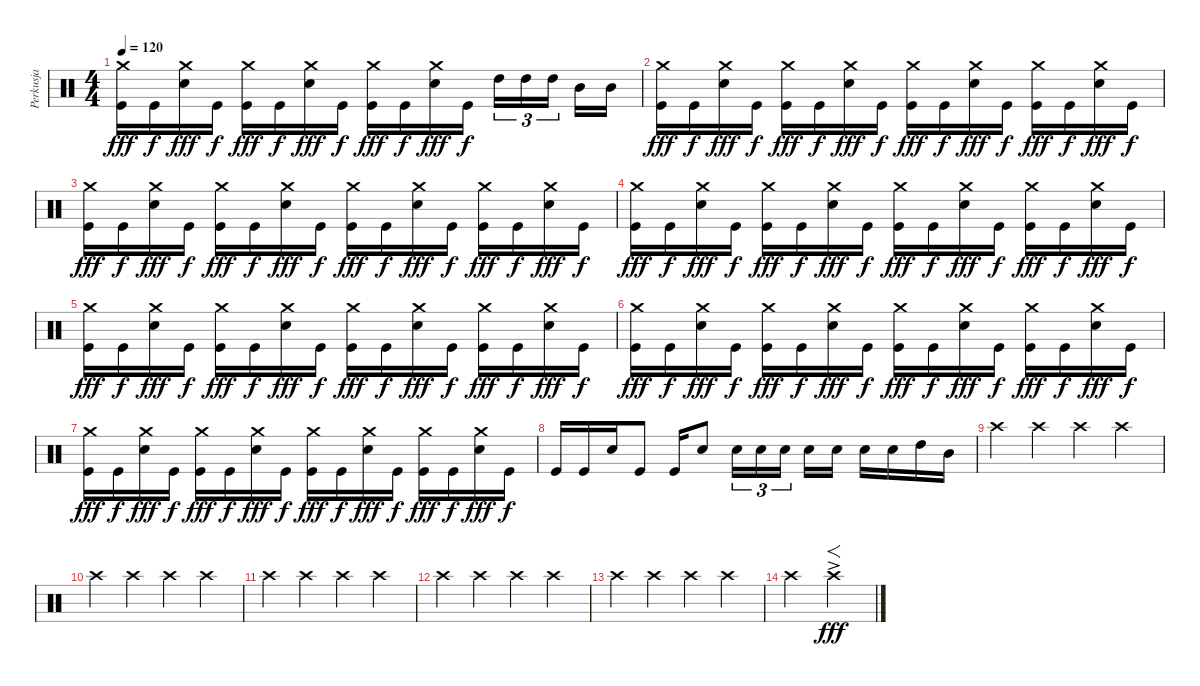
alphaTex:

\track ("Perkusja" "Perkusja") {instrument percussion}
\staff {score}
\articulation defaults
\ts (4 4)
\tempo 120
\clef neutral
\ks c
("Crash medium (hit)" "Kick (hit)").16{dy fff} "Kick (hit)".16{dy f} ("Crash medium (hit)" "Electric Snare (hit)").16{dy fff} "Kick (hit)".16{dy f} ("Crash medium (hit)" "Kick (hit)").16{dy fff} "Kick (hit)".16{dy f} ("Crash medium (hit)" "Electric Snare (hit)").16{dy fff} "Kick (hit)".16{dy f} ("Crash medium (hit)" "Kick (hit)").16{dy fff} "Kick (hit)".16{dy f} ("Crash medium (hit)" "Electric Snare (hit)").16{dy fff} "Kick (hit)".16{dy f} "High Tom (hit)".16{tu (3 2)} "High Tom (hit)".16{tu (3 2)} "High Tom (hit)".16{tu (3 2)} "Mid Tom (hit)".16 "Mid Tom (hit)".16 |
("Crash medium (hit)" "Kick (hit)").16{dy fff} "Kick (hit)".16{dy f} ("Crash medium (hit)" "Electric Snare (hit)").16{dy fff} "Kick (hit)".16{dy f} ("Crash medium (hit)" "Kick (hit)").16{dy fff} "Kick (hit)".16{dy f} ("Crash medium (hit)" "Electric Snare (hit)").16{dy fff} "Kick (hit)".16{dy f} ("Crash medium (hit)" "Kick (hit)").16{dy fff} "Kick (hit)".16{dy f} ("Crash medium (hit)" "Electric Snare (hit)").16{dy fff} "Kick (hit)".16{dy f} ("Crash medium (hit)" "Kick (hit)").16{dy fff} "Kick (hit)".16{dy f} ("Crash medium (hit)" "Electric Snare (hit)").16{dy fff} "Kick (hit)".16{dy f} |
("Crash medium (hit)" "Kick (hit)").16{dy fff} "Kick (hit)".16{dy f} ("Crash medium (hit)" "Electric Snare (hit)").16{dy fff} "Kick (hit)".16{dy f} ("Crash medium (hit)" "Kick (hit)").16{dy fff} "Kick (hit)".16{dy f} ("Crash medium (hit)" "Electric Snare (hit)").16{dy fff} "Kick (hit)".16{dy f} ("Crash medium (hit)" "Kick (hit)").16{dy fff} "Kick (hit)".16{dy f} ("Crash medium (hit)" "Electric Snare (hit)").16{dy fff} "Kick (hit)".16{dy f} ("Crash medium (hit)" "Kick (hit)").16{dy fff} "Kick (hit)".16{dy f} ("Crash medium (hit)" "Electric Snare (hit)").16{dy fff} "Kick (hit)".16{dy f} |
("Crash medium (hit)" "Kick (hit)").16{dy fff} "Kick (hit)".16{dy f} ("Crash medium (hit)" "Electric Snare (hit)").16{dy fff} "Kick (hit)".16{dy f} ("Crash medium (hit)" "Kick (hit)").16{dy fff} "Kick (hit)".16{dy f} ("Crash medium (hit)" "Electric Snare (hit)").16{dy fff} "Kick (hit)".16{dy f} ("Crash medium (hit)" "Kick (hit)").16{dy fff} "Kick (hit)".16{dy f} ("Crash medium (hit)" "Electric Snare (hit)").16{dy fff} "Kick (hit)".16{dy f} ("Crash medium (hit)" "Kick (hit)").16{dy fff} "Kick (hit)".16{dy f} ("Crash medium (hit)" "Electric Snare (hit)").16{dy fff} "Kick (hit)".16{dy f} |
("Crash medium (hit)" "Kick (hit)").16{dy fff} "Kick (hit)".16{dy f} ("Crash medium (hit)" "Electric Snare (hit)").16{dy fff} "Kick (hit)".16{dy f} ("Crash medium (hit)" "Kick (hit)").16{dy fff} "Kick (hit)".16{dy f} ("Crash medium (hit)" "Electric Snare (hit)").16{dy fff} "Kick (hit)".16{dy f} ("Crash medium (hit)" "Kick (hit)").16{dy fff} "Kick (hit)".16{dy f} ("Crash medium (hit)" "Electric Snare (hit)").16{dy fff} "Kick (hit)".16{dy f} ("Crash medium (hit)" "Kick (hit)").16{dy fff} "Kick (hit)".16{dy f} ("Crash medium (hit)" "Electric Snare (hit)").16{dy fff} "Kick (hit)".16{dy f} |
("Crash medium (hit)" "Kick (hit)").16{dy fff} "Kick (hit)".16{dy f} ("Crash medium (hit)" "Electric Snare (hit)").16{dy fff} "Kick (hit)".16{dy f} ("Crash medium (hit)" "Kick (hit)").16{dy fff} "Kick (hit)".16{dy f} ("Crash medium (hit)" "Electric Snare (hit)").16{dy fff} "Kick (hit)".16{dy f} ("Crash medium (hit)" "Kick (hit)").16{dy fff} "Kick (hit)".16{dy f} ("Crash medium (hit)" "Electric Snare (hit)").16{dy fff} "Kick (hit)".16{dy f} ("Crash medium (hit)" "Kick (hit)").16{dy fff} "Kick (hit)".16{dy f} ("Crash medium (hit)" "Electric Snare (hit)").16{dy fff} "Kick (hit)".16{dy f} |
("Crash medium (hit)" "Kick (hit)").16{dy fff} "Kick (hit)".16{dy f} ("Crash medium (hit)" "Electric Snare (hit)").16{dy fff} "Kick (hit)".16{dy f} ("Crash medium (hit)" "Kick (hit)").16{dy fff} "Kick (hit)".16{dy f} ("Crash medium (hit)" "Electric Snare (hit)").16{dy fff} "Kick (hit)".16{dy f} ("Crash medium (hit)" "Kick (hit)").16{dy fff} "Kick (hit)".16{dy f} ("Crash medium (hit)" "Electric Snare (hit)").16{dy fff} "Kick (hit)".16{dy f} ("Crash medium (hit)" "Kick (hit)").16{dy fff} "Kick (hit)".16{dy f} ("Crash medium (hit)" "Electric Snare (hit)").16{dy fff} "Kick (hit)".16{dy f} |
"Kick (hit)".16 "Kick (hit)".16 "Electric Snare (hit)".16 "Kick (hit)".8 "Kick (hit)".16 "Electric Snare (hit)".8 "Electric Snare (hit)".16{tu (3 2)} "Electric Snare (hit)".16{tu (3 2)} "Electric Snare (hit)".16{tu (3 2)} "Electric Snare (hit)".16 "Electric Snare (hit)".16 "Electric Snare (hit)".16 "Electric Snare (hit)".16 "High Tom (hit)".16 "Mid Tom (hit)".16 |
"Crash high (hit)".4 "Crash high (hit)".4 "Crash high (hit)".4 "Crash high (hit)".4 |
"Crash high (hit)".4 "Crash high (hit)".4 "Crash high (hit)".4 "Crash high (hit)".4 |
"Crash high (hit)".4 "Crash high (hit)".4 "Crash high (hit)".4 "Crash high (hit)".4 |
"Crash high (hit)".4 "Crash high (hit)".4 "Crash high (hit)".4 "Crash high (hit)".4 |
"Crash high (hit)".4 "Crash high (hit)".4 "Crash high (hit)".4 "Crash high (hit)".4 |
"Crash high (hit)".2 "Crash high (hit)"{ac}.2{f dy fff}
